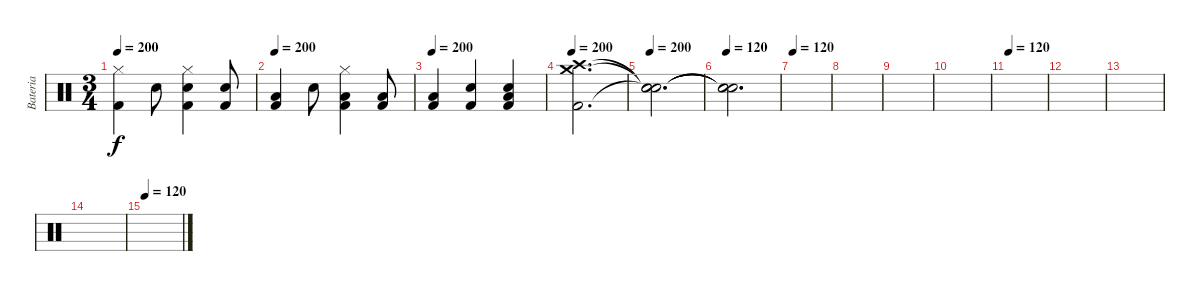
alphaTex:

\track ("Bateria" "Bateria") {instrument percussion}
\staff {score}
\articulation defaults
\ts (3 4)
\tempo 200
\clef neutral
\ks c
("Hi-Hat (closed)" "Kick (hit) 2").4{dy f} "Electric Snare (hit)".8 ("Hi-Hat (closed)" "Electric Snare (hit)" "Kick (hit) 2").4 ("Electric Snare (hit)" "Kick (hit) 2").8 |
\tempo 200
("Low Tom (hit)" "Kick (hit) 2").4 "Electric Snare (hit)".8 ("Hi-Hat (closed)" "Low Tom (hit)" "Kick (hit) 2").4 ("Low Tom (hit)" "Kick (hit) 2").8 |
\tempo 200
("Low Tom (hit)" "Kick (hit) 2").4 ("Electric Snare (hit)" "Kick (hit) 2").4 ("Electric Snare (hit)" "Low Tom (hit)" "Kick (hit) 2").4 |
\tempo 200
("Crash medium (hit)" "Crash high (hit)" "Kick (hit) 2").2{d} |
\tempo 200
("Snare (hit)"{t} "Snare (hit)"{t} "Snare (hit)"{t}).2{d} |
\tempo 120
("Snare (hit)"{t} "Snare (hit)"{t} "Snare (hit)"{t}).2{d} |
\tempo 120
|
|
|
|
\tempo 120
|
|
|
|
\tempo 120
